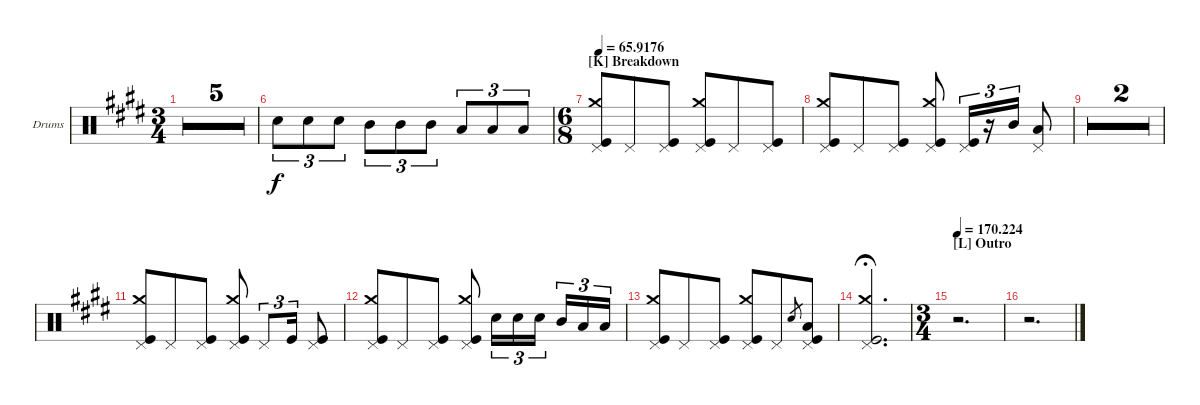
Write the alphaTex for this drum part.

\defaultSystemsLayout 4
\bracketExtendMode groupsimilarinstruments
\firstSystemTrackNameOrientation horizontal
\otherSystemsTrackNameOrientation horizontal
\track ("Dave Grohl (Drums)" "Drums") {multiBarRest instrument percussion}
\staff {score}
\articulation defaults
\ts (3 4)
\tempo
165.176
\accidentals auto
\clef neutral
\ottava regular
\simile firstofdouble
\ks e
|
\simile secondofdouble
|
\simile firstofdouble
|
\simile secondofdouble
|
\simile simple
|
\simile none "Snare (hit) 2".8{tu (3 2)} "Snare (hit) 2".8{tu (3 2)} "Snare (hit) 2".8{tu (3 2)} "Mid Tom (hit)".8{tu (3 2)} "Mid Tom (hit)".8{tu (3 2)} "Mid Tom (hit)".8{tu (3 2)} "Low Tom (hit)".8{tu (3 2)} "Low Tom (hit)".8{tu (3 2)} "Low Tom (hit)".8{tu (3 2)}
|
\ts (6 8)
\section ("K" "Breakdown")
\tempo
65.9176 ("Kick (hit)" "Crash medium (hit)" "Pedal Hi-Hat (hit)").8 "Pedal Hi-Hat (hit)".8 ("Pedal Hi-Hat (hit)" "Kick (hit)").8 ("Kick (hit)" "Crash medium (hit)" "Pedal Hi-Hat (hit)").8 "Pedal Hi-Hat (hit)".8 ("Pedal Hi-Hat (hit)" "Kick (hit)").8 |
("Kick (hit)" "Crash medium (hit)" "Pedal Hi-Hat (hit)").8 "Pedal Hi-Hat (hit)".8 ("Pedal Hi-Hat (hit)" "Kick (hit)").8 ("Kick (hit)" "Crash medium (hit)" "Pedal Hi-Hat (hit)").8 ("Pedal Hi-Hat (hit)" "Kick (hit)").16{tu (3 2)} r.16{tu (3 2)} "Mid Tom (hit)".16{tu (3 2)} ("Low Tom (hit)" "Pedal Hi-Hat (hit)").8 |
\simile firstofdouble
|
\simile secondofdouble
|
\simile none
("Kick (hit)" "Crash medium (hit)" "Pedal Hi-Hat (hit)").8 "Pedal Hi-Hat (hit)".8 ("Pedal Hi-Hat (hit)" "Kick (hit)").8 ("Kick (hit)" "Crash medium (hit)" "Pedal Hi-Hat (hit)").8 "Pedal Hi-Hat (hit)".8{tu (3 2)} "Kick (hit)".16{tu (3 2)} ("Kick (hit)" "Pedal Hi-Hat (hit)").8 |
("Kick (hit)" "Crash medium (hit)" "Pedal Hi-Hat (hit)").8 "Pedal Hi-Hat (hit)".8 ("Pedal Hi-Hat (hit)" "Kick (hit)").8 ("Kick (hit)" "Crash medium (hit)" "Pedal Hi-Hat (hit)").8 "Snare (hit) 2".16{tu (3 2)} "Snare (hit) 2".16{tu (3 2)} "Snare (hit) 2".16{tu (3 2)} "Mid Tom (hit)".16{tu (3 2)} "Low Tom (hit)".16{tu (3 2)} "Low Tom (hit)".16{tu (3 2)} |
("Kick (hit)" "Crash medium (hit)" "Pedal Hi-Hat (hit)").8 "Pedal Hi-Hat (hit)".8 ("Pedal Hi-Hat (hit)" "Kick (hit)").8 ("Kick (hit)" "Crash medium (hit)" "Pedal Hi-Hat (hit)").8 "Pedal Hi-Hat (hit)".8 "Snare (hit) 2".8{gr} ("Low Tom (hit)" "Kick (hit)" "Pedal Hi-Hat (hit)").8 |
("Kick (hit)" "Crash medium (hit)" "Pedal Hi-Hat (hit)").2{d fermata (medium 0.5)} |
\ts (3 4)
\section ("L" "Outro")
\tempo
170.224 r.2{d} |
r.2{d}
